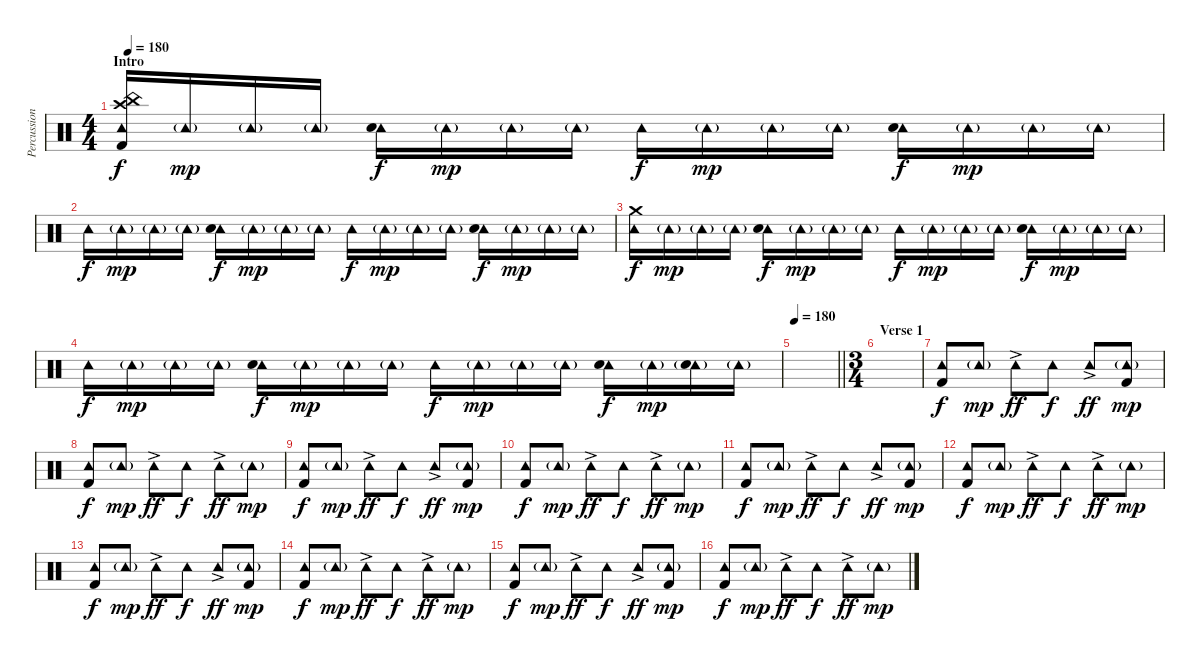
\track ("Percussion" "Percussion") {instrument percussion}
\staff {score}
\articulation defaults
\ts (4 4)
\section ("" "Intro")
\tempo 180
\tempo 130
\tempo 180
\clef neutral
\ks c
("Tambourine (hit)" "Crash high (hit)" "China (hit)" "Kick (hit) 2").16{dy f} "Tambourine (hit)"{g}.16{dy mp} "Tambourine (hit)"{g}.16 "Tambourine (hit)"{g}.16 ("Tambourine (hit)" "Electric Snare (hit)").16{dy f} "Tambourine (hit)"{g}.16{dy mp} "Tambourine (hit)"{g}.16 "Tambourine (hit)"{g}.16 "Tambourine (hit)".16{dy f} "Tambourine (hit)"{g}.16{dy mp} "Tambourine (hit)"{g}.16 "Tambourine (hit)"{g}.16 ("Tambourine (hit)" "Electric Snare (hit)").16{dy f} "Tambourine (hit)"{g}.16{dy mp} "Tambourine (hit)"{g}.16 "Tambourine (hit)"{g}.16 |
"Tambourine (hit)".16{dy f} "Tambourine (hit)"{g}.16{dy mp} "Tambourine (hit)"{g}.16 "Tambourine (hit)"{g}.16 ("Tambourine (hit)" "Electric Snare (hit)").16{dy f} "Tambourine (hit)"{g}.16{dy mp} "Tambourine (hit)"{g}.16 "Tambourine (hit)"{g}.16 "Tambourine (hit)".16{dy f} "Tambourine (hit)"{g}.16{dy mp} "Tambourine (hit)"{g}.16 "Tambourine (hit)"{g}.16 ("Tambourine (hit)" "Electric Snare (hit)").16{dy f} "Tambourine (hit)"{g}.16{dy mp} "Tambourine (hit)"{g}.16 "Tambourine (hit)"{g}.16 |
("Tambourine (hit)" "Crash medium (hit)").16{dy f} "Tambourine (hit)"{g}.16{dy mp} "Tambourine (hit)"{g}.16 "Tambourine (hit)"{g}.16 ("Tambourine (hit)" "Electric Snare (hit)").16{dy f} "Tambourine (hit)"{g}.16{dy mp} "Tambourine (hit)"{g}.16 "Tambourine (hit)"{g}.16 "Tambourine (hit)".16{dy f} "Tambourine (hit)"{g}.16{dy mp} "Tambourine (hit)"{g}.16 "Tambourine (hit)"{g}.16 ("Tambourine (hit)" "Electric Snare (hit)").16{dy f} "Tambourine (hit)"{g}.16{dy mp} "Tambourine (hit)"{g}.16 "Tambourine (hit)"{g}.16 |
"Tambourine (hit)".16{dy f} "Tambourine (hit)"{g}.16{dy mp} "Tambourine (hit)"{g}.16 "Tambourine (hit)"{g}.16 ("Tambourine (hit)" "Electric Snare (hit)").16{dy f} "Tambourine (hit)"{g}.16{dy mp} "Tambourine (hit)"{g}.16 "Tambourine (hit)"{g}.16 "Tambourine (hit)".16{dy f} "Tambourine (hit)"{g}.16{dy mp} "Tambourine (hit)"{g}.16 "Tambourine (hit)"{g}.16 ("Tambourine (hit)" "Electric Snare (hit)").16{dy f} "Tambourine (hit)"{g}.16{dy mp} ("Tambourine (hit)"{g} "Electric Snare (hit)").16 "Tambourine (hit)"{g}.16 |
\tempo 180
\barLineRight lightlight
|
\ts (3 4)
\section ("" "Verse 1")
|
("Tambourine (hit)" "Kick (hit) 2").8{dy f} "Tambourine (hit)"{g}.8{dy mp} "Tambourine (hit)"{ac}.8{dy ff volume 10} "Tambourine (hit)".8{dy f volume 6} "Tambourine (hit)"{ac}.8{dy ff volume 10} ("Tambourine (hit)"{g} "Kick (hit) 2").8{dy mp} |
("Tambourine (hit)" "Kick (hit) 2").8{dy f} "Tambourine (hit)"{g}.8{dy mp} "Tambourine (hit)"{ac}.8{dy ff volume 10} "Tambourine (hit)".8{dy f volume 6} "Tambourine (hit)"{ac}.8{dy ff volume 10} "Tambourine (hit)"{g}.8{dy mp} |
("Tambourine (hit)" "Kick (hit) 2").8{dy f} "Tambourine (hit)"{g}.8{dy mp} "Tambourine (hit)"{ac}.8{dy ff volume 10} "Tambourine (hit)".8{dy f volume 6} "Tambourine (hit)"{ac}.8{dy ff volume 10} ("Tambourine (hit)"{g} "Kick (hit) 2").8{dy mp} |
("Tambourine (hit)" "Kick (hit) 2").8{dy f} "Tambourine (hit)"{g}.8{dy mp} "Tambourine (hit)"{ac}.8{dy ff volume 10} "Tambourine (hit)".8{dy f volume 6} "Tambourine (hit)"{ac}.8{dy ff volume 10} "Tambourine (hit)"{g}.8{dy mp} |
("Tambourine (hit)" "Kick (hit) 2").8{dy f} "Tambourine (hit)"{g}.8{dy mp} "Tambourine (hit)"{ac}.8{dy ff volume 10} "Tambourine (hit)".8{dy f volume 6} "Tambourine (hit)"{ac}.8{dy ff volume 10} ("Tambourine (hit)"{g} "Kick (hit) 2").8{dy mp} |
("Tambourine (hit)" "Kick (hit) 2").8{dy f} "Tambourine (hit)"{g}.8{dy mp} "Tambourine (hit)"{ac}.8{dy ff volume 10} "Tambourine (hit)".8{dy f volume 6} "Tambourine (hit)"{ac}.8{dy ff volume 10} "Tambourine (hit)"{g}.8{dy mp} |
("Tambourine (hit)" "Kick (hit) 2").8{dy f} "Tambourine (hit)"{g}.8{dy mp} "Tambourine (hit)"{ac}.8{dy ff volume 10} "Tambourine (hit)".8{dy f volume 6} "Tambourine (hit)"{ac}.8{dy ff volume 10} ("Tambourine (hit)"{g} "Kick (hit) 2").8{dy mp} |
("Tambourine (hit)" "Kick (hit) 2").8{dy f} "Tambourine (hit)"{g}.8{dy mp} "Tambourine (hit)"{ac}.8{dy ff volume 10} "Tambourine (hit)".8{dy f volume 6} "Tambourine (hit)"{ac}.8{dy ff volume 10} "Tambourine (hit)"{g}.8{dy mp} |
("Tambourine (hit)" "Kick (hit) 2").8{dy f} "Tambourine (hit)"{g}.8{dy mp} "Tambourine (hit)"{ac}.8{dy ff volume 10} "Tambourine (hit)".8{dy f volume 6} "Tambourine (hit)"{ac}.8{dy ff volume 10} ("Tambourine (hit)"{g} "Kick (hit) 2").8{dy mp} |
("Tambourine (hit)" "Kick (hit) 2").8{dy f} "Tambourine (hit)"{g}.8{dy mp} "Tambourine (hit)"{ac}.8{dy ff volume 10} "Tambourine (hit)".8{dy f volume 6} "Tambourine (hit)"{ac}.8{dy ff volume 10} "Tambourine (hit)"{g}.8{dy mp}
